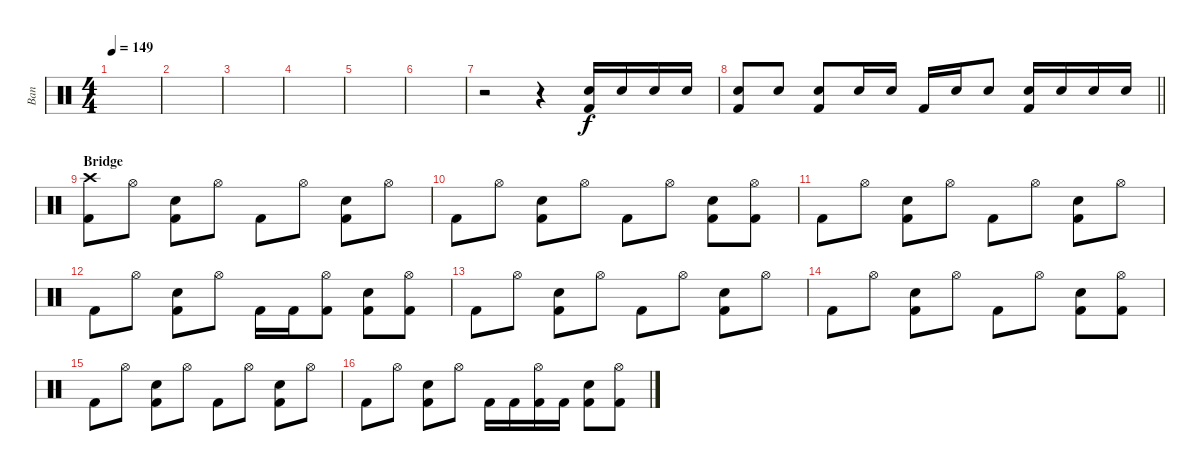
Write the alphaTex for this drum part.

\track ("Ban" "Ban") {instrument percussion}
\staff {score}
\articulation defaults
\ts (4 4)
\tempo 149
\clef neutral
\ks c
|
|
|
|
|
|
r.2 r.4 ("Electric Snare (hit)" "Kick (hit) 2").16 "Electric Snare (hit)".16 "Electric Snare (hit)".16 "Electric Snare (hit)".16 |
\barLineRight lightlight
("Electric Snare (hit)" "Kick (hit) 2").8 "Electric Snare (hit)".8 ("Electric Snare (hit)" "Kick (hit) 2").8 "Electric Snare (hit)".16 "Electric Snare (hit)".16 "Kick (hit) 2".16 "Electric Snare (hit)".16 "Electric Snare (hit)".8 ("Electric Snare (hit)" "Kick (hit) 2").16 "Electric Snare (hit)".16 "Electric Snare (hit)".16 "Electric Snare (hit)".16 |
\section ("" "Bridge")
("Crash high (hit)" "Kick (hit) 2").8 "Hi-Hat (open)".8 ("Electric Snare (hit)" "Kick (hit) 2").8 "Hi-Hat (open)".8 "Kick (hit) 2".8 "Hi-Hat (open)".8 ("Electric Snare (hit)" "Kick (hit) 2").8 "Hi-Hat (open)".8 |
"Kick (hit) 2".8 "Hi-Hat (open)".8 ("Electric Snare (hit)" "Kick (hit) 2").8 "Hi-Hat (open)".8 "Kick (hit) 2".8 "Hi-Hat (open)".8 ("Electric Snare (hit)" "Kick (hit) 2").8 ("Hi-Hat (open)" "Kick (hit) 2").8 |
"Kick (hit) 2".8 "Hi-Hat (open)".8 ("Electric Snare (hit)" "Kick (hit) 2").8 "Hi-Hat (open)".8 "Kick (hit) 2".8 "Hi-Hat (open)".8 ("Electric Snare (hit)" "Kick (hit) 2").8 "Hi-Hat (open)".8 |
"Kick (hit) 2".8 "Hi-Hat (open)".8 ("Electric Snare (hit)" "Kick (hit) 2").8 "Hi-Hat (open)".8 "Kick (hit) 2".16 "Kick (hit) 2".16 ("Hi-Hat (open)" "Kick (hit) 2").8 ("Electric Snare (hit)" "Kick (hit) 2").8 ("Hi-Hat (open)" "Kick (hit) 2").8 |
"Kick (hit) 2".8 "Hi-Hat (open)".8 ("Electric Snare (hit)" "Kick (hit) 2").8 "Hi-Hat (open)".8 "Kick (hit) 2".8 "Hi-Hat (open)".8 ("Electric Snare (hit)" "Kick (hit) 2").8 "Hi-Hat (open)".8 |
"Kick (hit) 2".8 "Hi-Hat (open)".8 ("Electric Snare (hit)" "Kick (hit) 2").8 "Hi-Hat (open)".8 "Kick (hit) 2".8 "Hi-Hat (open)".8 ("Electric Snare (hit)" "Kick (hit) 2").8 ("Hi-Hat (open)" "Kick (hit) 2").8 |
"Kick (hit) 2".8 "Hi-Hat (open)".8 ("Electric Snare (hit)" "Kick (hit) 2").8 "Hi-Hat (open)".8 "Kick (hit) 2".8 "Hi-Hat (open)".8 ("Electric Snare (hit)" "Kick (hit) 2").8 "Hi-Hat (open)".8 |
"Kick (hit) 2".8 "Hi-Hat (open)".8 ("Electric Snare (hit)" "Kick (hit) 2").8 "Hi-Hat (open)".8 "Kick (hit) 2".16 "Kick (hit) 2".16 ("Hi-Hat (open)" "Kick (hit) 2").16 "Kick (hit) 2".16 ("Electric Snare (hit)" "Kick (hit) 2").8 ("Hi-Hat (open)" "Kick (hit) 2").8
